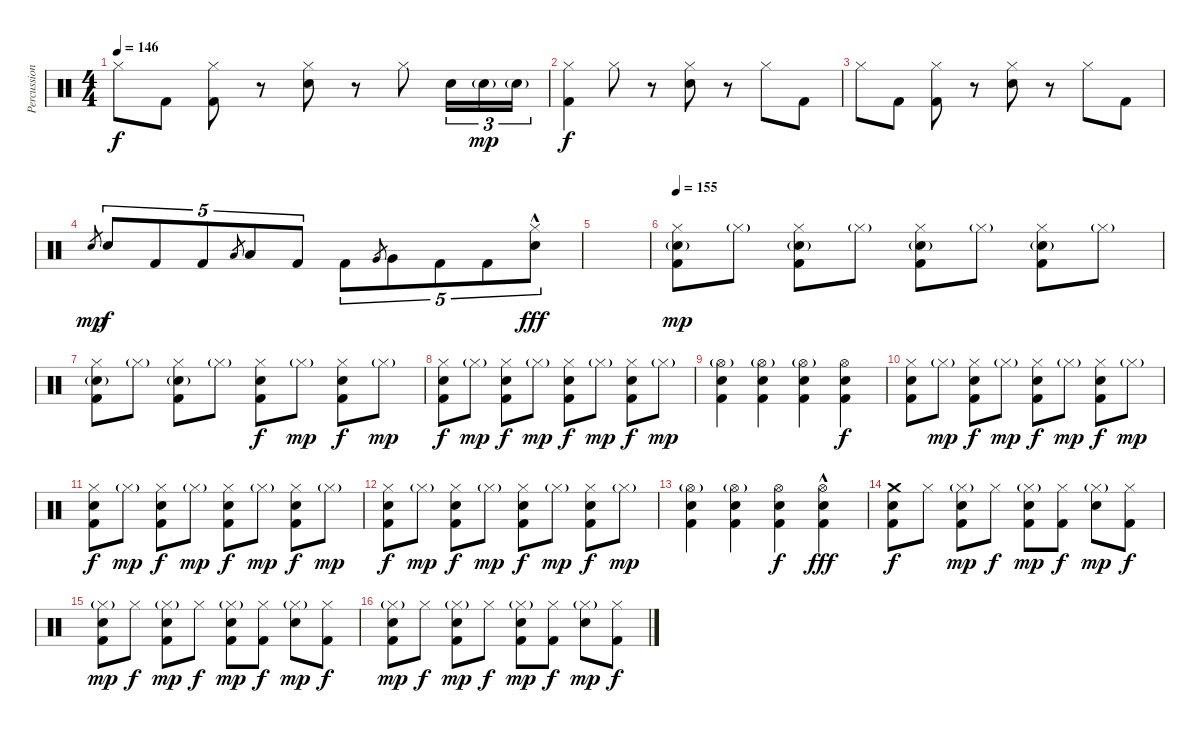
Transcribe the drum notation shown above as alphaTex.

\track ("Percussion" "Percussion") {instrument percussion}
\staff {score}
\articulation defaults
\ts (4 4)
\tempo 146
\clef neutral
\ks c "Hi-Hat (closed)".8{dy f} "Kick (hit) 2".8
("Hi-Hat (closed)" "Kick (hit) 2").8 r.8 ("Hi-Hat (closed)" "Electric Snare (hit)").8 r.8 "Hi-Hat (closed)".8 "Electric Snare (hit)".16{tu (3 2)} "Electric Snare (hit)"{g}.16{tu (3 2) dy mp} "Electric Snare (hit)"{g}.16{tu (3 2)} |
("Hi-Hat (closed)" "Kick (hit) 2").4{dy f} "Hi-Hat (closed)".8 r.8 ("Hi-Hat (closed)" "Electric Snare (hit)").8 r.8 "Hi-Hat (closed)".8 "Kick (hit) 2".8 |
"Hi-Hat (closed)".8 "Kick (hit) 2".8 ("Hi-Hat (closed)" "Kick (hit) 2").8 r.8 ("Hi-Hat (closed)" "Electric Snare (hit)").8 r.8 "Hi-Hat (closed)".8 "Kick (hit) 2".8 |
"Electric Snare (hit)".8{gr dy mp} "Electric Snare (hit)".8{tu (5 4) dy f} "Kick (hit) 2".8{tu (5 4)} "Kick (hit) 2".8{tu (5 4)} "Low Tom (hit)".8{gr} "Low Tom (hit)".8{tu (5 4)} "Kick (hit) 2".8{tu (5 4)} "Kick (hit) 2".8{tu (5 4)} "Very Low Tom (hit)".8{gr} "Very Low Tom (hit)".8{tu (5 4)} "Kick (hit) 2".8{tu (5 4)} "Kick (hit) 2".8{tu (5 4)} ("Hi-Hat (closed)"{hac} "Electric Snare (hit)").8{tu (5 4) dy fff} |
|
\tempo 155
("Hi-Hat (closed)" "Electric Snare (hit)"{g} "Kick (hit) 2").8{dy mp} "Hi-Hat (closed)"{g}.8 ("Hi-Hat (closed)" "Electric Snare (hit)"{g} "Kick (hit) 2").8 "Hi-Hat (closed)"{g}.8 ("Hi-Hat (closed)" "Electric Snare (hit)"{g} "Kick (hit) 2").8 "Hi-Hat (closed)"{g}.8 ("Hi-Hat (closed)" "Electric Snare (hit)"{g} "Kick (hit) 2").8 "Hi-Hat (closed)"{g}.8 |
("Hi-Hat (closed)" "Electric Snare (hit)"{g} "Kick (hit) 2").8 "Hi-Hat (closed)"{g}.8 ("Hi-Hat (closed)" "Electric Snare (hit)"{g} "Kick (hit) 2").8 "Hi-Hat (closed)"{g}.8 ("Hi-Hat (closed)" "Electric Snare (hit)" "Kick (hit) 2").8{dy f} "Hi-Hat (closed)"{g}.8{dy mp} ("Hi-Hat (closed)" "Electric Snare (hit)" "Kick (hit) 2").8{dy f} "Hi-Hat (closed)"{g}.8{dy mp} |
("Hi-Hat (closed)" "Electric Snare (hit)" "Kick (hit) 2").8{dy f} "Hi-Hat (closed)"{g}.8{dy mp} ("Hi-Hat (closed)" "Electric Snare (hit)" "Kick (hit) 2").8{dy f} "Hi-Hat (closed)"{g}.8{dy mp} ("Hi-Hat (closed)" "Electric Snare (hit)" "Kick (hit) 2").8{dy f} "Hi-Hat (closed)"{g}.8{dy mp} ("Hi-Hat (closed)" "Electric Snare (hit)" "Kick (hit) 2").8{dy f} "Hi-Hat (closed)"{g}.8{dy mp} |
("Hi-Hat (open)"{g} "Electric Snare (hit)" "Kick (hit) 2").4 ("Hi-Hat (open)"{g} "Electric Snare (hit)" "Kick (hit) 2").4 ("Hi-Hat (open)"{g} "Electric Snare (hit)" "Kick (hit) 2").4 ("Hi-Hat (open)" "Electric Snare (hit)" "Kick (hit) 2").4{dy f} |
("Hi-Hat (closed)" "Electric Snare (hit)" "Kick (hit) 2").8 "Hi-Hat (closed)"{g}.8{dy mp} ("Hi-Hat (closed)" "Electric Snare (hit)" "Kick (hit) 2").8{dy f} "Hi-Hat (closed)"{g}.8{dy mp} ("Hi-Hat (closed)" "Electric Snare (hit)" "Kick (hit) 2").8{dy f} "Hi-Hat (closed)"{g}.8{dy mp} ("Hi-Hat (closed)" "Electric Snare (hit)" "Kick (hit) 2").8{dy f} "Hi-Hat (closed)"{g}.8{dy mp} |
("Hi-Hat (closed)" "Electric Snare (hit)" "Kick (hit) 2").8{dy f} "Hi-Hat (closed)"{g}.8{dy mp} ("Hi-Hat (closed)" "Electric Snare (hit)" "Kick (hit) 2").8{dy f} "Hi-Hat (closed)"{g}.8{dy mp} ("Hi-Hat (closed)" "Electric Snare (hit)" "Kick (hit) 2").8{dy f} "Hi-Hat (closed)"{g}.8{dy mp} ("Hi-Hat (closed)" "Electric Snare (hit)" "Kick (hit) 2").8{dy f} "Hi-Hat (closed)"{g}.8{dy mp} |
("Hi-Hat (closed)" "Electric Snare (hit)" "Kick (hit) 2").8{dy f} "Hi-Hat (closed)"{g}.8{dy mp} ("Hi-Hat (closed)" "Electric Snare (hit)" "Kick (hit) 2").8{dy f} "Hi-Hat (closed)"{g}.8{dy mp} ("Hi-Hat (closed)" "Electric Snare (hit)" "Kick (hit) 2").8{dy f} "Hi-Hat (closed)"{g}.8{dy mp} ("Hi-Hat (closed)" "Electric Snare (hit)" "Kick (hit) 2").8{dy f} "Hi-Hat (closed)"{g}.8{dy mp} |
("Hi-Hat (open)"{g} "Electric Snare (hit)" "Kick (hit) 2").4 ("Hi-Hat (open)"{g} "Electric Snare (hit)" "Kick (hit) 2").4 ("Hi-Hat (open)" "Electric Snare (hit)" "Kick (hit) 2").4{dy f} ("Hi-Hat (open)"{hac} "Electric Snare (hit)" "Kick (hit) 2").4{dy fff} |
("Crash medium (hit)" "Electric Snare (hit)" "Kick (hit) 2").8{dy f} "Hi-Hat (closed)".8 ("Hi-Hat (closed)"{g} "Electric Snare (hit)" "Kick (hit) 2").8{dy mp} "Hi-Hat (closed)".8{dy f} ("Hi-Hat (closed)"{g} "Electric Snare (hit)" "Kick (hit) 2").8{dy mp} ("Hi-Hat (closed)" "Kick (hit) 2").8{dy f} ("Hi-Hat (closed)"{g} "Electric Snare (hit)").8{dy mp} ("Hi-Hat (closed)" "Kick (hit) 2").8{dy f} |
("Hi-Hat (closed)"{g} "Electric Snare (hit)" "Kick (hit) 2").8{dy mp} "Hi-Hat (closed)".8{dy f} ("Hi-Hat (closed)"{g} "Electric Snare (hit)" "Kick (hit) 2").8{dy mp} "Hi-Hat (closed)".8{dy f} ("Hi-Hat (closed)"{g} "Electric Snare (hit)" "Kick (hit) 2").8{dy mp} ("Hi-Hat (closed)" "Kick (hit) 2").8{dy f} ("Hi-Hat (closed)"{g} "Electric Snare (hit)").8{dy mp} ("Hi-Hat (closed)" "Kick (hit) 2").8{dy f} |
("Hi-Hat (closed)"{g} "Electric Snare (hit)" "Kick (hit) 2").8{dy mp} "Hi-Hat (closed)".8{dy f} ("Hi-Hat (closed)"{g} "Electric Snare (hit)" "Kick (hit) 2").8{dy mp} "Hi-Hat (closed)".8{dy f} ("Hi-Hat (closed)"{g} "Electric Snare (hit)" "Kick (hit) 2").8{dy mp} ("Hi-Hat (closed)" "Kick (hit) 2").8{dy f} ("Hi-Hat (closed)"{g} "Electric Snare (hit)").8{dy mp} ("Hi-Hat (closed)" "Kick (hit) 2").8{dy f}
